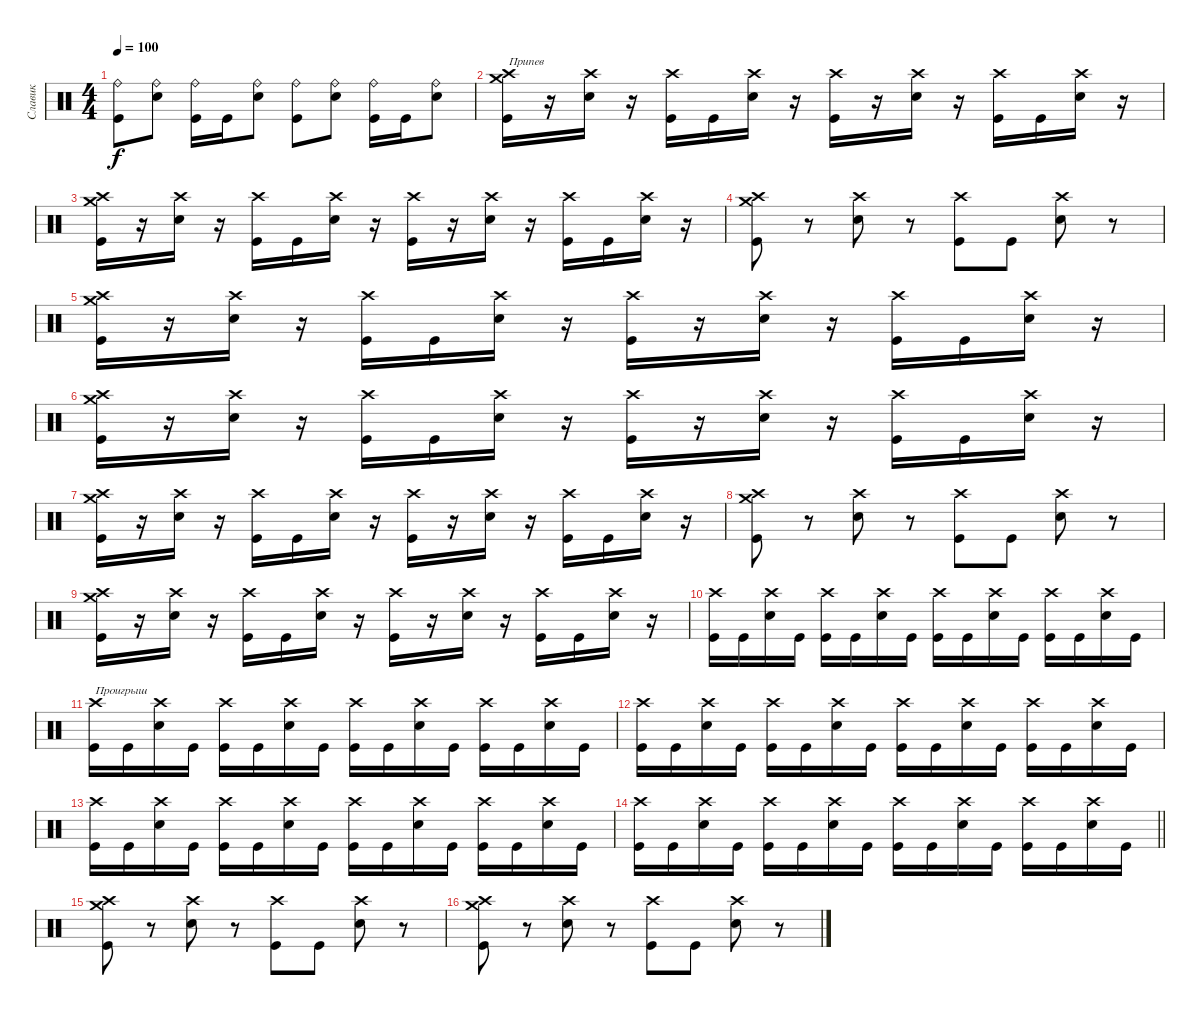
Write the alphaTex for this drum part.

\track ("Славик" "Славик") {instrument percussion}
\staff {score}
\articulation defaults
\ts (4 4)
\tempo 100
\clef neutral
\ks c
("Kick (hit)" "Ride (bell)").8{dy f} ("Electric Snare (hit)" "Ride (bell)").8 ("Kick (hit)" "Ride (bell)").16 "Kick (hit)".16 ("Electric Snare (hit)" "Ride (bell)").8 ("Kick (hit)" "Ride (bell)").8 ("Electric Snare (hit)" "Ride (bell)").8 ("Kick (hit)" "Ride (bell)").16 "Kick (hit)".16 ("Electric Snare (hit)" "Ride (bell)").8 |
("Kick (hit)" "Crash high (hit)" "Crash medium (hit)").16{txt "Припев"} r.16 ("Electric Snare (hit)" "Crash high (hit)").16 r.16 ("Kick (hit)" "Crash high (hit)").16 "Kick (hit)".16 ("Electric Snare (hit)" "Crash high (hit)").16 r.16 ("Kick (hit)" "Crash high (hit)").16 r.16 ("Electric Snare (hit)" "Crash high (hit)").16 r.16 ("Kick (hit)" "Crash high (hit)").16 "Kick (hit)".16 ("Electric Snare (hit)" "Crash high (hit)").16 r.16 |
("Kick (hit)" "Crash high (hit)" "Crash medium (hit)").16 r.16 ("Electric Snare (hit)" "Crash high (hit)").16 r.16 ("Kick (hit)" "Crash high (hit)").16 "Kick (hit)".16 ("Electric Snare (hit)" "Crash high (hit)").16 r.16 ("Kick (hit)" "Crash high (hit)").16 r.16 ("Electric Snare (hit)" "Crash high (hit)").16 r.16 ("Kick (hit)" "Crash high (hit)").16 "Kick (hit)".16 ("Electric Snare (hit)" "Crash high (hit)").16 r.16 |
("Kick (hit)" "Crash high (hit)" "Crash medium (hit)").8 r.8 ("Electric Snare (hit)" "Crash high (hit)").8 r.8 ("Kick (hit)" "Crash high (hit)").8 "Kick (hit)".8 ("Electric Snare (hit)" "Crash high (hit)").8 r.8 |
("Kick (hit)" "Crash high (hit)" "Crash medium (hit)").16 r.16 ("Electric Snare (hit)" "Crash high (hit)").16 r.16 ("Kick (hit)" "Crash high (hit)").16 "Kick (hit)".16 ("Electric Snare (hit)" "Crash high (hit)").16 r.16 ("Kick (hit)" "Crash high (hit)").16 r.16 ("Electric Snare (hit)" "Crash high (hit)").16 r.16 ("Kick (hit)" "Crash high (hit)").16 "Kick (hit)".16 ("Electric Snare (hit)" "Crash high (hit)").16 r.16 |
("Kick (hit)" "Crash high (hit)" "Crash medium (hit)").16 r.16 ("Electric Snare (hit)" "Crash high (hit)").16 r.16 ("Kick (hit)" "Crash high (hit)").16 "Kick (hit)".16 ("Electric Snare (hit)" "Crash high (hit)").16 r.16 ("Kick (hit)" "Crash high (hit)").16 r.16 ("Electric Snare (hit)" "Crash high (hit)").16 r.16 ("Kick (hit)" "Crash high (hit)").16 "Kick (hit)".16 ("Electric Snare (hit)" "Crash high (hit)").16 r.16 |
("Kick (hit)" "Crash high (hit)" "Crash medium (hit)").16 r.16 ("Electric Snare (hit)" "Crash high (hit)").16 r.16 ("Kick (hit)" "Crash high (hit)").16 "Kick (hit)".16 ("Electric Snare (hit)" "Crash high (hit)").16 r.16 ("Kick (hit)" "Crash high (hit)").16 r.16 ("Electric Snare (hit)" "Crash high (hit)").16 r.16 ("Kick (hit)" "Crash high (hit)").16 "Kick (hit)".16 ("Electric Snare (hit)" "Crash high (hit)").16 r.16 |
("Kick (hit)" "Crash high (hit)" "Crash medium (hit)").8 r.8 ("Electric Snare (hit)" "Crash high (hit)").8 r.8 ("Kick (hit)" "Crash high (hit)").8 "Kick (hit)".8 ("Electric Snare (hit)" "Crash high (hit)").8 r.8 |
("Kick (hit)" "Crash high (hit)" "Crash medium (hit)").16 r.16 ("Electric Snare (hit)" "Crash high (hit)").16 r.16 ("Kick (hit)" "Crash high (hit)").16 "Kick (hit)".16 ("Electric Snare (hit)" "Crash high (hit)").16 r.16 ("Kick (hit)" "Crash high (hit)").16 r.16 ("Electric Snare (hit)" "Crash high (hit)").16 r.16 ("Kick (hit)" "Crash high (hit)").16 "Kick (hit)".16 ("Electric Snare (hit)" "Crash high (hit)").16 r.16 |
("Kick (hit)" "Crash high (hit)").16 "Kick (hit)".16 ("Electric Snare (hit)" "Crash high (hit)").16 "Kick (hit)".16 ("Kick (hit)" "Crash high (hit)").16 "Kick (hit)".16 ("Electric Snare (hit)" "Crash high (hit)").16 "Kick (hit)".16 ("Kick (hit)" "Crash high (hit)").16 "Kick (hit)".16 ("Electric Snare (hit)" "Crash high (hit)").16 "Kick (hit)".16 ("Kick (hit)" "Crash high (hit)").16 "Kick (hit)".16 ("Electric Snare (hit)" "Crash high (hit)").16 "Kick (hit)".16 |
("Kick (hit)" "Crash high (hit)").16{txt "Проигрыш"} "Kick (hit)".16 ("Electric Snare (hit)" "Crash high (hit)").16 "Kick (hit)".16 ("Kick (hit)" "Crash high (hit)").16 "Kick (hit)".16 ("Electric Snare (hit)" "Crash high (hit)").16 "Kick (hit)".16 ("Kick (hit)" "Crash high (hit)").16 "Kick (hit)".16 ("Electric Snare (hit)" "Crash high (hit)").16 "Kick (hit)".16 ("Kick (hit)" "Crash high (hit)").16 "Kick (hit)".16 ("Electric Snare (hit)" "Crash high (hit)").16 "Kick (hit)".16 |
("Kick (hit)" "Crash high (hit)").16 "Kick (hit)".16 ("Electric Snare (hit)" "Crash high (hit)").16 "Kick (hit)".16 ("Kick (hit)" "Crash high (hit)").16 "Kick (hit)".16 ("Electric Snare (hit)" "Crash high (hit)").16 "Kick (hit)".16 ("Kick (hit)" "Crash high (hit)").16 "Kick (hit)".16 ("Electric Snare (hit)" "Crash high (hit)").16 "Kick (hit)".16 ("Kick (hit)" "Crash high (hit)").16 "Kick (hit)".16 ("Electric Snare (hit)" "Crash high (hit)").16 "Kick (hit)".16 |
("Kick (hit)" "Crash high (hit)").16 "Kick (hit)".16 ("Electric Snare (hit)" "Crash high (hit)").16 "Kick (hit)".16 ("Kick (hit)" "Crash high (hit)").16 "Kick (hit)".16 ("Electric Snare (hit)" "Crash high (hit)").16 "Kick (hit)".16 ("Kick (hit)" "Crash high (hit)").16 "Kick (hit)".16 ("Electric Snare (hit)" "Crash high (hit)").16 "Kick (hit)".16 ("Kick (hit)" "Crash high (hit)").16 "Kick (hit)".16 ("Electric Snare (hit)" "Crash high (hit)").16 "Kick (hit)".16 |
\barLineRight lightlight
("Kick (hit)" "Crash high (hit)").16 "Kick (hit)".16 ("Electric Snare (hit)" "Crash high (hit)").16 "Kick (hit)".16 ("Kick (hit)" "Crash high (hit)").16 "Kick (hit)".16 ("Electric Snare (hit)" "Crash high (hit)").16 "Kick (hit)".16 ("Kick (hit)" "Crash high (hit)").16 "Kick (hit)".16 ("Electric Snare (hit)" "Crash high (hit)").16 "Kick (hit)".16 ("Kick (hit)" "Crash high (hit)").16 "Kick (hit)".16 ("Electric Snare (hit)" "Crash high (hit)").16 "Kick (hit)".16 |
("Kick (hit)" "Crash high (hit)" "Crash medium (hit)").8 r.8 ("Electric Snare (hit)" "Crash high (hit)").8 r.8 ("Kick (hit)" "Crash high (hit)").8 "Kick (hit)".8 ("Electric Snare (hit)" "Crash high (hit)").8 r.8 |
("Kick (hit)" "Crash high (hit)" "Crash medium (hit)").8 r.8 ("Electric Snare (hit)" "Crash high (hit)").8 r.8 ("Kick (hit)" "Crash high (hit)").8 "Kick (hit)".8 ("Electric Snare (hit)" "Crash high (hit)").8 r.8
